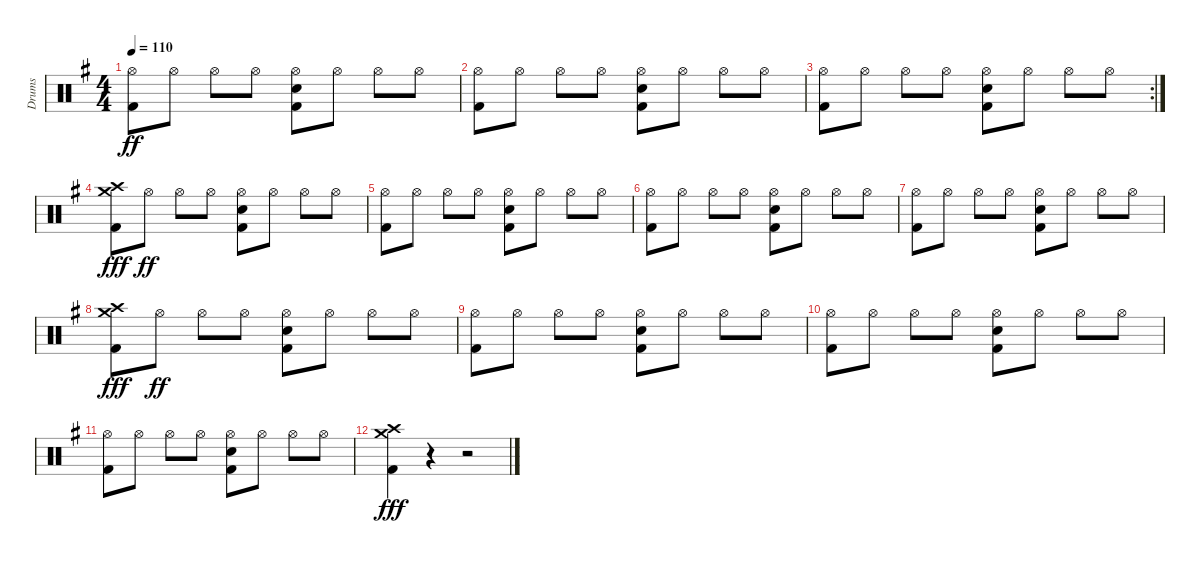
\track ("Drums" "Drums") {instrument percussion}
\staff {score}
\articulation defaults
\ts (4 4)
\tempo 110
\clef neutral
\ks eminor
("Kick (hit) 2" "Hi-Hat (open)").8{dy ff} "Hi-Hat (open)".8 "Hi-Hat (open)".8 "Hi-Hat (open)".8 ("Kick (hit) 2" "Electric Snare (hit)" "Hi-Hat (open)").8 "Hi-Hat (open)".8 "Hi-Hat (open)".8 "Hi-Hat (open)".8 |
("Kick (hit) 2" "Hi-Hat (open)").8 "Hi-Hat (open)".8 "Hi-Hat (open)".8 "Hi-Hat (open)".8 ("Kick (hit) 2" "Electric Snare (hit)" "Hi-Hat (open)").8 "Hi-Hat (open)".8 "Hi-Hat (open)".8 "Hi-Hat (open)".8 |
\rc 2
("Kick (hit) 2" "Hi-Hat (open)").8 "Hi-Hat (open)".8 "Hi-Hat (open)".8 "Hi-Hat (open)".8 ("Kick (hit) 2" "Electric Snare (hit)" "Hi-Hat (open)").8 "Hi-Hat (open)".8 "Hi-Hat (open)".8 "Hi-Hat (open)".8 |
("Kick (hit) 2" "Crash high (hit)" "Crash medium (hit)").8{dy fff} "Hi-Hat (open)".8{dy ff} "Hi-Hat (open)".8 "Hi-Hat (open)".8 ("Kick (hit) 2" "Electric Snare (hit)" "Hi-Hat (open)").8 "Hi-Hat (open)".8 "Hi-Hat (open)".8 "Hi-Hat (open)".8 |
("Kick (hit) 2" "Hi-Hat (open)").8 "Hi-Hat (open)".8 "Hi-Hat (open)".8 "Hi-Hat (open)".8 ("Kick (hit) 2" "Electric Snare (hit)" "Hi-Hat (open)").8 "Hi-Hat (open)".8 "Hi-Hat (open)".8 "Hi-Hat (open)".8 |
("Kick (hit) 2" "Hi-Hat (open)").8 "Hi-Hat (open)".8 "Hi-Hat (open)".8 "Hi-Hat (open)".8 ("Kick (hit) 2" "Electric Snare (hit)" "Hi-Hat (open)").8 "Hi-Hat (open)".8 "Hi-Hat (open)".8 "Hi-Hat (open)".8 |
("Kick (hit) 2" "Hi-Hat (open)").8 "Hi-Hat (open)".8 "Hi-Hat (open)".8 "Hi-Hat (open)".8 ("Kick (hit) 2" "Electric Snare (hit)" "Hi-Hat (open)").8 "Hi-Hat (open)".8 "Hi-Hat (open)".8 "Hi-Hat (open)".8 |
("Kick (hit) 2" "Crash high (hit)" "Crash medium (hit)").8{dy fff} "Hi-Hat (open)".8{dy ff} "Hi-Hat (open)".8 "Hi-Hat (open)".8 ("Kick (hit) 2" "Electric Snare (hit)" "Hi-Hat (open)").8 "Hi-Hat (open)".8 "Hi-Hat (open)".8 "Hi-Hat (open)".8 |
("Kick (hit) 2" "Hi-Hat (open)").8 "Hi-Hat (open)".8 "Hi-Hat (open)".8 "Hi-Hat (open)".8 ("Kick (hit) 2" "Electric Snare (hit)" "Hi-Hat (open)").8 "Hi-Hat (open)".8 "Hi-Hat (open)".8 "Hi-Hat (open)".8 |
("Kick (hit) 2" "Hi-Hat (open)").8 "Hi-Hat (open)".8 "Hi-Hat (open)".8 "Hi-Hat (open)".8 ("Kick (hit) 2" "Electric Snare (hit)" "Hi-Hat (open)").8 "Hi-Hat (open)".8 "Hi-Hat (open)".8 "Hi-Hat (open)".8 |
("Kick (hit) 2" "Hi-Hat (open)").8 "Hi-Hat (open)".8 "Hi-Hat (open)".8 "Hi-Hat (open)".8 ("Kick (hit) 2" "Electric Snare (hit)" "Hi-Hat (open)").8 "Hi-Hat (open)".8 "Hi-Hat (open)".8 "Hi-Hat (open)".8 |
("Crash high (hit)" "Kick (hit) 2" "Crash medium (hit)").4{dy fff} r.4 r.2
